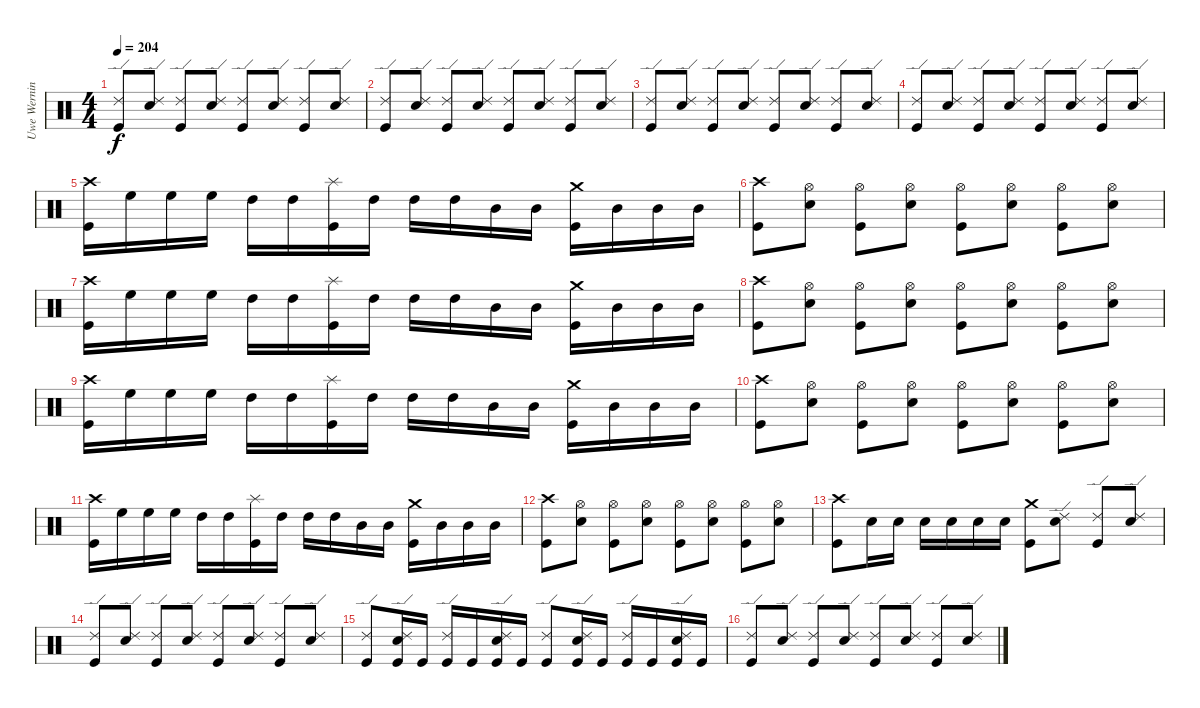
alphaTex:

\track ("Uwe Werning" "Uwe Wernin") {instrument percussion}
\staff {score}
\articulation defaults
\ts (4 4)
\tempo 204
\clef neutral
\ks c
("Ride (edge) 2" "Kick (hit)").8{dy f} ("Ride (edge) 2" "Snare (hit) 2").8 ("Ride (edge) 2" "Kick (hit)").8 ("Ride (edge) 2" "Snare (hit) 2").8 ("Ride (edge) 2" "Kick (hit)").8 ("Ride (edge) 2" "Snare (hit) 2").8 ("Ride (edge) 2" "Kick (hit)").8 ("Ride (edge) 2" "Snare (hit) 2").8 |
("Ride (edge) 2" "Kick (hit)").8 ("Ride (edge) 2" "Snare (hit) 2").8 ("Ride (edge) 2" "Kick (hit)").8 ("Ride (edge) 2" "Snare (hit) 2").8 ("Ride (edge) 2" "Kick (hit)").8 ("Ride (edge) 2" "Snare (hit) 2").8 ("Ride (edge) 2" "Kick (hit)").8 ("Ride (edge) 2" "Snare (hit) 2").8 |
("Ride (edge) 2" "Kick (hit)").8 ("Ride (edge) 2" "Snare (hit) 2").8 ("Ride (edge) 2" "Kick (hit)").8 ("Ride (edge) 2" "Snare (hit) 2").8 ("Ride (edge) 2" "Kick (hit)").8 ("Ride (edge) 2" "Snare (hit) 2").8 ("Ride (edge) 2" "Kick (hit)").8 ("Ride (edge) 2" "Snare (hit) 2").8 |
("Ride (edge) 2" "Kick (hit)").8 ("Ride (edge) 2" "Snare (hit) 2").8 ("Ride (edge) 2" "Kick (hit)").8 ("Ride (edge) 2" "Snare (hit) 2").8 ("Ride (edge) 2" "Kick (hit)").8 ("Ride (edge) 2" "Snare (hit) 2").8 ("Ride (edge) 2" "Kick (hit)").8 ("Ride (edge) 2" "Snare (hit) 2").8 |
("Crash high (hit)" "Kick (hit)").16 "High Floor Tom (hit)".16 "High Floor Tom (hit)".16 "High Floor Tom (hit)".16 "High Tom (hit)".16 "High Tom (hit)".16 ("Splash (hit)" "Kick (hit)").16 "High Tom (hit)".16 "High Tom (hit)".16 "High Tom (hit)".16 "Mid Tom (hit)".16 "Mid Tom (hit)".16 ("Crash medium (hit)" "Kick (hit)").16 "Mid Tom (hit)".16 "Mid Tom (hit)".16 "Mid Tom (hit)".16 |
("Crash high (hit)" "Kick (hit)").8 ("Hi-Hat (open)" "Snare (hit) 2").8 ("Hi-Hat (open)" "Kick (hit)").8 ("Hi-Hat (open)" "Snare (hit) 2").8 ("Hi-Hat (open)" "Kick (hit)").8 ("Hi-Hat (open)" "Snare (hit) 2").8 ("Hi-Hat (open)" "Kick (hit)").8 ("Hi-Hat (open)" "Snare (hit) 2").8 |
("Crash high (hit)" "Kick (hit)").16 "High Floor Tom (hit)".16 "High Floor Tom (hit)".16 "High Floor Tom (hit)".16 "High Tom (hit)".16 "High Tom (hit)".16 ("Splash (hit)" "Kick (hit)").16 "High Tom (hit)".16 "High Tom (hit)".16 "High Tom (hit)".16 "Mid Tom (hit)".16 "Mid Tom (hit)".16 ("Crash medium (hit)" "Kick (hit)").16 "Mid Tom (hit)".16 "Mid Tom (hit)".16 "Mid Tom (hit)".16 |
("Crash high (hit)" "Kick (hit)").8 ("Hi-Hat (open)" "Snare (hit) 2").8 ("Hi-Hat (open)" "Kick (hit)").8 ("Hi-Hat (open)" "Snare (hit) 2").8 ("Hi-Hat (open)" "Kick (hit)").8 ("Hi-Hat (open)" "Snare (hit) 2").8 ("Hi-Hat (open)" "Kick (hit)").8 ("Hi-Hat (open)" "Snare (hit) 2").8 |
("Crash high (hit)" "Kick (hit)").16 "High Floor Tom (hit)".16 "High Floor Tom (hit)".16 "High Floor Tom (hit)".16 "High Tom (hit)".16 "High Tom (hit)".16 ("Splash (hit)" "Kick (hit)").16 "High Tom (hit)".16 "High Tom (hit)".16 "High Tom (hit)".16 "Mid Tom (hit)".16 "Mid Tom (hit)".16 ("Crash medium (hit)" "Kick (hit)").16 "Mid Tom (hit)".16 "Mid Tom (hit)".16 "Mid Tom (hit)".16 |
("Crash high (hit)" "Kick (hit)").8 ("Hi-Hat (open)" "Snare (hit) 2").8 ("Hi-Hat (open)" "Kick (hit)").8 ("Hi-Hat (open)" "Snare (hit) 2").8 ("Hi-Hat (open)" "Kick (hit)").8 ("Hi-Hat (open)" "Snare (hit) 2").8 ("Hi-Hat (open)" "Kick (hit)").8 ("Hi-Hat (open)" "Snare (hit) 2").8 |
("Crash high (hit)" "Kick (hit)").16 "High Floor Tom (hit)".16 "High Floor Tom (hit)".16 "High Floor Tom (hit)".16 "High Tom (hit)".16 "High Tom (hit)".16 ("Splash (hit)" "Kick (hit)").16 "High Tom (hit)".16 "High Tom (hit)".16 "High Tom (hit)".16 "Mid Tom (hit)".16 "Mid Tom (hit)".16 ("Crash medium (hit)" "Kick (hit)").16 "Mid Tom (hit)".16 "Mid Tom (hit)".16 "Mid Tom (hit)".16 |
("Crash high (hit)" "Kick (hit)").8 ("Hi-Hat (open)" "Snare (hit) 2").8 ("Hi-Hat (open)" "Kick (hit)").8 ("Hi-Hat (open)" "Snare (hit) 2").8 ("Hi-Hat (open)" "Kick (hit)").8 ("Hi-Hat (open)" "Snare (hit) 2").8 ("Hi-Hat (open)" "Kick (hit)").8 ("Hi-Hat (open)" "Snare (hit) 2").8 |
("Crash high (hit)" "Kick (hit)").8 "Snare (hit) 2".16 "Snare (hit) 2".16 "Snare (hit) 2".16 "Snare (hit) 2".16 "Snare (hit) 2".16 "Snare (hit) 2".16 ("Crash medium (hit)" "Kick (hit)").8 ("Ride (edge) 2" "Snare (hit) 2").8 ("Ride (edge) 2" "Kick (hit)").8 ("Ride (edge) 2" "Snare (hit) 2").8 |
("Ride (edge) 2" "Kick (hit)").8 ("Ride (edge) 2" "Snare (hit) 2").8 ("Ride (edge) 2" "Kick (hit)").8 ("Ride (edge) 2" "Snare (hit) 2").8 ("Ride (edge) 2" "Kick (hit)").8 ("Ride (edge) 2" "Snare (hit) 2").8 ("Ride (edge) 2" "Kick (hit)").8 ("Ride (edge) 2" "Snare (hit) 2").8 |
("Ride (edge) 2" "Kick (hit)").8 ("Ride (edge) 2" "Snare (hit) 2" "Kick (hit)").16 "Kick (hit)".16 ("Ride (edge) 2" "Kick (hit)").16 "Kick (hit)".16 ("Ride (edge) 2" "Snare (hit) 2" "Kick (hit)").16 "Kick (hit)".16 ("Ride (edge) 2" "Kick (hit)").8 ("Ride (edge) 2" "Snare (hit) 2" "Kick (hit)").16 "Kick (hit)".16 ("Ride (edge) 2" "Kick (hit)").16 "Kick (hit)".16 ("Ride (edge) 2" "Snare (hit) 2" "Kick (hit)").16 "Kick (hit)".16 |
("Ride (edge) 2" "Kick (hit)").8 ("Ride (edge) 2" "Snare (hit) 2").8 ("Ride (edge) 2" "Kick (hit)").8 ("Ride (edge) 2" "Snare (hit) 2").8 ("Ride (edge) 2" "Kick (hit)").8 ("Ride (edge) 2" "Snare (hit) 2").8 ("Ride (edge) 2" "Kick (hit)").8 ("Ride (edge) 2" "Snare (hit) 2").8
